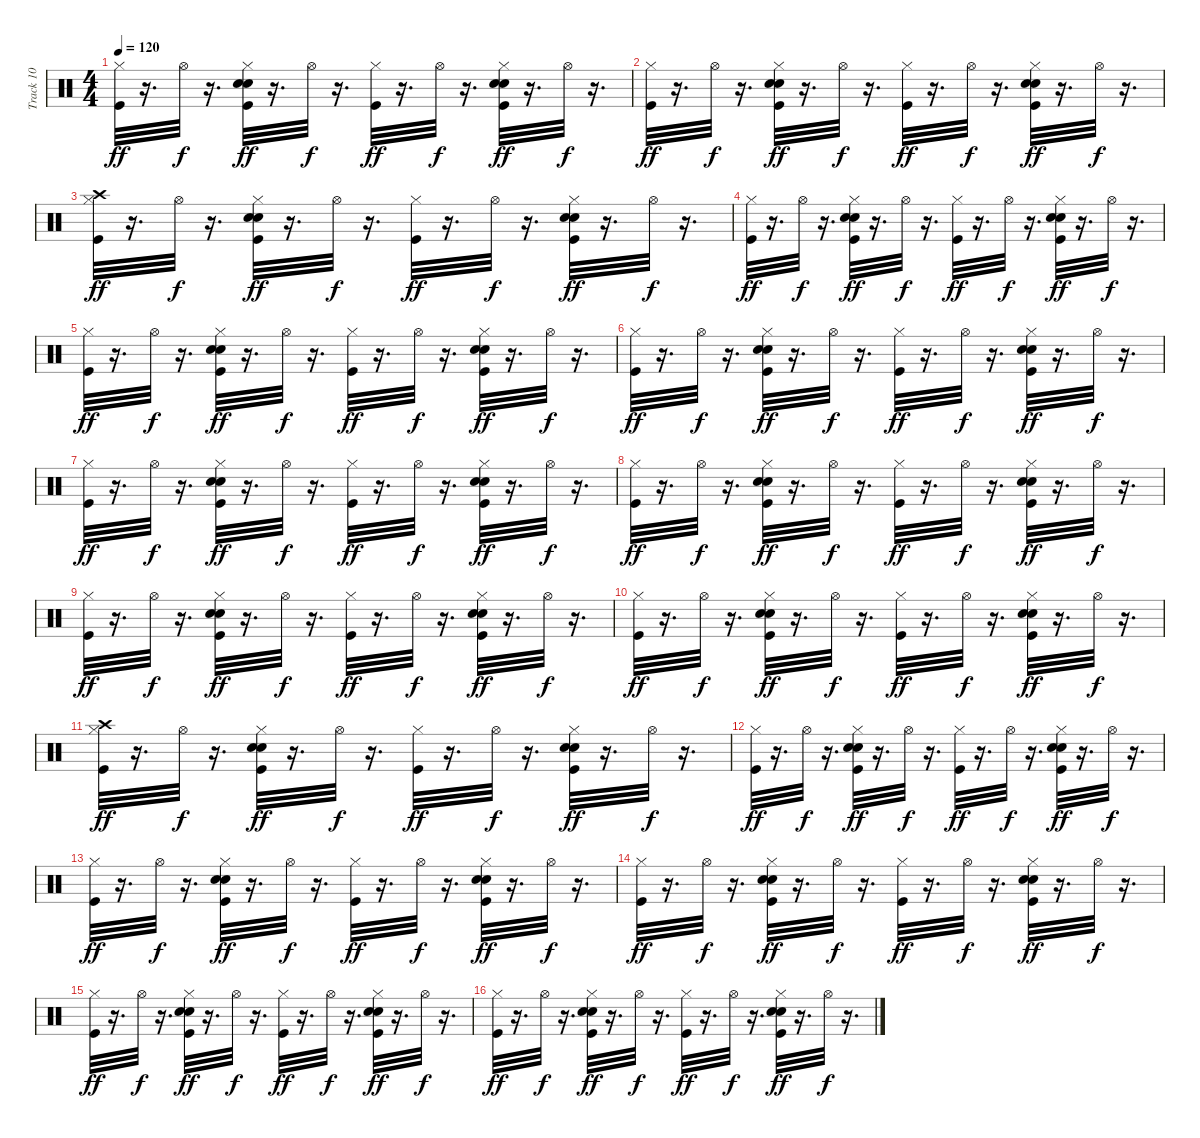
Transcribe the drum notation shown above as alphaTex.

\track ("Track 10" "Track 10") {instrument percussion}
\staff {score}
\articulation defaults
\ts (4 4)
\tempo 120
\clef neutral
\ks c
("Kick (hit)" "Hi-Hat (closed)").32{dy ff} r.16{d} "Hi-Hat (open)".32{dy f} r.16{d} ("Kick (hit)" "Snare (hit) 2" "Hand Clap (hit)" "Hi-Hat (closed)").32{dy ff} r.16{d} "Hi-Hat (open)".32{dy f} r.16{d} ("Kick (hit)" "Hi-Hat (closed)").32{dy ff} r.16{d} "Hi-Hat (open)".32{dy f} r.16{d} ("Kick (hit)" "Snare (hit) 2" "Hand Clap (hit)" "Hi-Hat (closed)").32{dy ff} r.16{d} "Hi-Hat (open)".32{dy f} r.16{d} |
("Kick (hit)" "Hi-Hat (closed)").32{dy ff} r.16{d} "Hi-Hat (open)".32{dy f} r.16{d} ("Kick (hit)" "Snare (hit) 2" "Hand Clap (hit)" "Hi-Hat (closed)").32{dy ff} r.16{d} "Hi-Hat (open)".32{dy f} r.16{d} ("Kick (hit)" "Hi-Hat (closed)").32{dy ff} r.16{d} "Hi-Hat (open)".32{dy f} r.16{d} ("Kick (hit)" "Snare (hit) 2" "Hand Clap (hit)" "Hi-Hat (closed)").32{dy ff} r.16{d} "Hi-Hat (open)".32{dy f} r.16{d} |
("Kick (hit)" "Hi-Hat (closed)" "Crash high (hit)").32{dy ff} r.16{d} "Hi-Hat (open)".32{dy f} r.16{d} ("Kick (hit)" "Snare (hit) 2" "Hand Clap (hit)" "Hi-Hat (closed)").32{dy ff} r.16{d} "Hi-Hat (open)".32{dy f} r.16{d} ("Kick (hit)" "Hi-Hat (closed)").32{dy ff} r.16{d} "Hi-Hat (open)".32{dy f} r.16{d} ("Kick (hit)" "Snare (hit) 2" "Hand Clap (hit)" "Hi-Hat (closed)").32{dy ff} r.16{d} "Hi-Hat (open)".32{dy f} r.16{d} |
("Kick (hit)" "Hi-Hat (closed)").32{dy ff} r.16{d} "Hi-Hat (open)".32{dy f} r.16{d} ("Kick (hit)" "Snare (hit) 2" "Hand Clap (hit)" "Hi-Hat (closed)").32{dy ff} r.16{d} "Hi-Hat (open)".32{dy f} r.16{d} ("Kick (hit)" "Hi-Hat (closed)").32{dy ff} r.16{d} "Hi-Hat (open)".32{dy f} r.16{d} ("Kick (hit)" "Snare (hit) 2" "Hand Clap (hit)" "Hi-Hat (closed)").32{dy ff} r.16{d} "Hi-Hat (open)".32{dy f} r.16{d} |
("Kick (hit)" "Hi-Hat (closed)").32{dy ff} r.16{d} "Hi-Hat (open)".32{dy f} r.16{d} ("Kick (hit)" "Snare (hit) 2" "Hand Clap (hit)" "Hi-Hat (closed)").32{dy ff} r.16{d} "Hi-Hat (open)".32{dy f} r.16{d} ("Kick (hit)" "Hi-Hat (closed)").32{dy ff} r.16{d} "Hi-Hat (open)".32{dy f} r.16{d} ("Kick (hit)" "Snare (hit) 2" "Hand Clap (hit)" "Hi-Hat (closed)").32{dy ff} r.16{d} "Hi-Hat (open)".32{dy f} r.16{d} |
("Kick (hit)" "Hi-Hat (closed)").32{dy ff} r.16{d} "Hi-Hat (open)".32{dy f} r.16{d} ("Kick (hit)" "Snare (hit) 2" "Hand Clap (hit)" "Hi-Hat (closed)").32{dy ff} r.16{d} "Hi-Hat (open)".32{dy f} r.16{d} ("Kick (hit)" "Hi-Hat (closed)").32{dy ff} r.16{d} "Hi-Hat (open)".32{dy f} r.16{d} ("Kick (hit)" "Snare (hit) 2" "Hand Clap (hit)" "Hi-Hat (closed)").32{dy ff} r.16{d} "Hi-Hat (open)".32{dy f} r.16{d} |
("Kick (hit)" "Hi-Hat (closed)").32{dy ff} r.16{d} "Hi-Hat (open)".32{dy f} r.16{d} ("Kick (hit)" "Snare (hit) 2" "Hand Clap (hit)" "Hi-Hat (closed)").32{dy ff} r.16{d} "Hi-Hat (open)".32{dy f} r.16{d} ("Kick (hit)" "Hi-Hat (closed)").32{dy ff} r.16{d} "Hi-Hat (open)".32{dy f} r.16{d} ("Kick (hit)" "Snare (hit) 2" "Hand Clap (hit)" "Hi-Hat (closed)").32{dy ff} r.16{d} "Hi-Hat (open)".32{dy f} r.16{d} |
("Kick (hit)" "Hi-Hat (closed)").32{dy ff} r.16{d} "Hi-Hat (open)".32{dy f} r.16{d} ("Kick (hit)" "Snare (hit) 2" "Hand Clap (hit)" "Hi-Hat (closed)").32{dy ff} r.16{d} "Hi-Hat (open)".32{dy f} r.16{d} ("Kick (hit)" "Hi-Hat (closed)").32{dy ff} r.16{d} "Hi-Hat (open)".32{dy f} r.16{d} ("Kick (hit)" "Snare (hit) 2" "Hand Clap (hit)" "Hi-Hat (closed)").32{dy ff} r.16{d} "Hi-Hat (open)".32{dy f} r.16{d} |
("Kick (hit)" "Hi-Hat (closed)").32{dy ff} r.16{d} "Hi-Hat (open)".32{dy f} r.16{d} ("Kick (hit)" "Snare (hit) 2" "Hand Clap (hit)" "Hi-Hat (closed)").32{dy ff} r.16{d} "Hi-Hat (open)".32{dy f} r.16{d} ("Kick (hit)" "Hi-Hat (closed)").32{dy ff} r.16{d} "Hi-Hat (open)".32{dy f} r.16{d} ("Kick (hit)" "Snare (hit) 2" "Hand Clap (hit)" "Hi-Hat (closed)").32{dy ff} r.16{d} "Hi-Hat (open)".32{dy f} r.16{d} |
("Kick (hit)" "Hi-Hat (closed)").32{dy ff} r.16{d} "Hi-Hat (open)".32{dy f} r.16{d} ("Kick (hit)" "Snare (hit) 2" "Hand Clap (hit)" "Hi-Hat (closed)").32{dy ff} r.16{d} "Hi-Hat (open)".32{dy f} r.16{d} ("Kick (hit)" "Hi-Hat (closed)").32{dy ff} r.16{d} "Hi-Hat (open)".32{dy f} r.16{d} ("Kick (hit)" "Snare (hit) 2" "Hand Clap (hit)" "Hi-Hat (closed)").32{dy ff} r.16{d} "Hi-Hat (open)".32{dy f} r.16{d} |
("Kick (hit)" "Hi-Hat (closed)" "Crash high (hit)").32{dy ff} r.16{d} "Hi-Hat (open)".32{dy f} r.16{d} ("Kick (hit)" "Snare (hit) 2" "Hand Clap (hit)" "Hi-Hat (closed)").32{dy ff} r.16{d} "Hi-Hat (open)".32{dy f} r.16{d} ("Kick (hit)" "Hi-Hat (closed)").32{dy ff} r.16{d} "Hi-Hat (open)".32{dy f} r.16{d} ("Kick (hit)" "Snare (hit) 2" "Hand Clap (hit)" "Hi-Hat (closed)").32{dy ff} r.16{d} "Hi-Hat (open)".32{dy f} r.16{d} |
("Kick (hit)" "Hi-Hat (closed)").32{dy ff} r.16{d} "Hi-Hat (open)".32{dy f} r.16{d} ("Kick (hit)" "Snare (hit) 2" "Hand Clap (hit)" "Hi-Hat (closed)").32{dy ff} r.16{d} "Hi-Hat (open)".32{dy f} r.16{d} ("Kick (hit)" "Hi-Hat (closed)").32{dy ff} r.16{d} "Hi-Hat (open)".32{dy f} r.16{d} ("Kick (hit)" "Snare (hit) 2" "Hand Clap (hit)" "Hi-Hat (closed)").32{dy ff} r.16{d} "Hi-Hat (open)".32{dy f} r.16{d} |
("Kick (hit)" "Hi-Hat (closed)").32{dy ff} r.16{d} "Hi-Hat (open)".32{dy f} r.16{d} ("Kick (hit)" "Snare (hit) 2" "Hand Clap (hit)" "Hi-Hat (closed)").32{dy ff} r.16{d} "Hi-Hat (open)".32{dy f} r.16{d} ("Kick (hit)" "Hi-Hat (closed)").32{dy ff} r.16{d} "Hi-Hat (open)".32{dy f} r.16{d} ("Kick (hit)" "Snare (hit) 2" "Hand Clap (hit)" "Hi-Hat (closed)").32{dy ff} r.16{d} "Hi-Hat (open)".32{dy f} r.16{d} |
("Kick (hit)" "Hi-Hat (closed)").32{dy ff} r.16{d} "Hi-Hat (open)".32{dy f} r.16{d} ("Kick (hit)" "Snare (hit) 2" "Hand Clap (hit)" "Hi-Hat (closed)").32{dy ff} r.16{d} "Hi-Hat (open)".32{dy f} r.16{d} ("Kick (hit)" "Hi-Hat (closed)").32{dy ff} r.16{d} "Hi-Hat (open)".32{dy f} r.16{d} ("Kick (hit)" "Snare (hit) 2" "Hand Clap (hit)" "Hi-Hat (closed)").32{dy ff} r.16{d} "Hi-Hat (open)".32{dy f} r.16{d} |
("Kick (hit)" "Hi-Hat (closed)").32{dy ff} r.16{d} "Hi-Hat (open)".32{dy f} r.16{d} ("Kick (hit)" "Snare (hit) 2" "Hand Clap (hit)" "Hi-Hat (closed)").32{dy ff} r.16{d} "Hi-Hat (open)".32{dy f} r.16{d} ("Kick (hit)" "Hi-Hat (closed)").32{dy ff} r.16{d} "Hi-Hat (open)".32{dy f} r.16{d} ("Kick (hit)" "Snare (hit) 2" "Hand Clap (hit)" "Hi-Hat (closed)").32{dy ff} r.16{d} "Hi-Hat (open)".32{dy f} r.16{d} |
("Kick (hit)" "Hi-Hat (closed)").32{dy ff} r.16{d} "Hi-Hat (open)".32{dy f} r.16{d} ("Kick (hit)" "Snare (hit) 2" "Hand Clap (hit)" "Hi-Hat (closed)").32{dy ff} r.16{d} "Hi-Hat (open)".32{dy f} r.16{d} ("Kick (hit)" "Hi-Hat (closed)").32{dy ff} r.16{d} "Hi-Hat (open)".32{dy f} r.16{d} ("Kick (hit)" "Snare (hit) 2" "Hand Clap (hit)" "Hi-Hat (closed)").32{dy ff} r.16{d} "Hi-Hat (open)".32{dy f} r.16{d}
